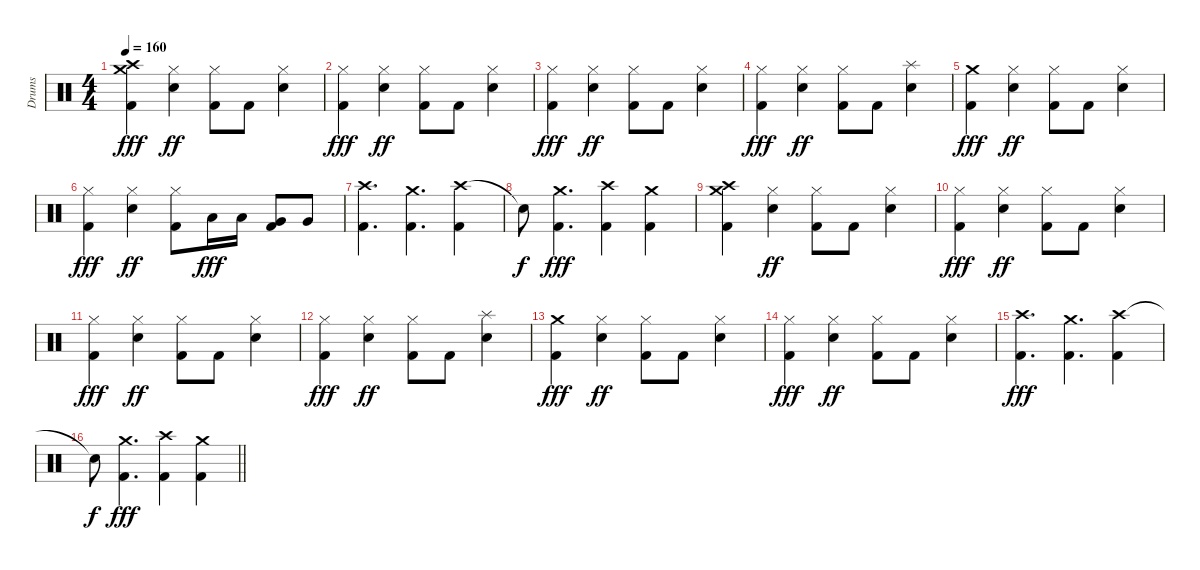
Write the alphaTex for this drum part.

\track ("Drums" "Drums") {instrument percussion}
\staff {score}
\articulation defaults
\ts (4 4)
\section ("" "")
\tempo 160
\clef neutral
\ks c
("Crash medium (hit)" "Crash high (hit)" "Kick (hit) 2").4{dy fff} ("Hi-Hat (closed)" "Electric Snare (hit)").4{dy ff} ("Hi-Hat (closed)" "Kick (hit) 2").8 "Kick (hit) 2".8 ("Hi-Hat (closed)" "Electric Snare (hit)").4 |
("Hi-Hat (closed)" "Kick (hit) 2").4{dy fff} ("Hi-Hat (closed)" "Electric Snare (hit)").4{dy ff} ("Hi-Hat (closed)" "Kick (hit) 2").8 "Kick (hit) 2".8 ("Hi-Hat (closed)" "Electric Snare (hit)").4 |
("Hi-Hat (closed)" "Kick (hit) 2").4{dy fff} ("Hi-Hat (closed)" "Electric Snare (hit)").4{dy ff} ("Hi-Hat (closed)" "Kick (hit) 2").8 "Kick (hit) 2".8 ("Hi-Hat (closed)" "Electric Snare (hit)").4 |
("Hi-Hat (closed)" "Kick (hit) 2").4{dy fff} ("Hi-Hat (closed)" "Electric Snare (hit)").4{dy ff} ("Hi-Hat (closed)" "Kick (hit) 2").8 "Kick (hit) 2".8 ("Splash (hit)" "Electric Snare (hit)").4 |
("Crash medium (hit)" "Kick (hit) 2").4{dy fff} ("Hi-Hat (closed)" "Electric Snare (hit)").4{dy ff} ("Hi-Hat (closed)" "Kick (hit) 2").8 "Kick (hit) 2".8 ("Hi-Hat (closed)" "Electric Snare (hit)").4 |
("Hi-Hat (closed)" "Kick (hit) 2").4{dy fff} ("Hi-Hat (closed)" "Electric Snare (hit)").4{dy ff} ("Hi-Hat (closed)" "Kick (hit) 2").8 "Low Tom (hit)".16{dy fff} "Low Tom (hit)".16 ("Very Low Tom (hit)" "Kick (hit) 2").8 "Very Low Tom (hit)".8 |
("Crash high (hit)" "Kick (hit) 2").4{d} ("Crash medium (hit)" "Kick (hit) 2").4{d} ("Crash high (hit)" "Kick (hit) 2").4 |
"Snare (hit)"{t}.8{dy f} ("Crash medium (hit)" "Kick (hit) 2").4{d dy fff} ("Crash high (hit)" "Kick (hit) 2").4 ("Crash medium (hit)" "Kick (hit) 2").4 |
("Crash high (hit)" "Crash medium (hit)" "Kick (hit) 2").4 ("Hi-Hat (closed)" "Electric Snare (hit)").4{dy ff} ("Hi-Hat (closed)" "Kick (hit) 2").8 "Kick (hit) 2".8 ("Hi-Hat (closed)" "Electric Snare (hit)").4 |
("Hi-Hat (closed)" "Kick (hit) 2").4{dy fff} ("Hi-Hat (closed)" "Electric Snare (hit)").4{dy ff} ("Hi-Hat (closed)" "Kick (hit) 2").8 "Kick (hit) 2".8 ("Hi-Hat (closed)" "Electric Snare (hit)").4 |
("Hi-Hat (closed)" "Kick (hit) 2").4{dy fff} ("Hi-Hat (closed)" "Electric Snare (hit)").4{dy ff} ("Hi-Hat (closed)" "Kick (hit) 2").8 "Kick (hit) 2".8 ("Hi-Hat (closed)" "Electric Snare (hit)").4 |
("Hi-Hat (closed)" "Kick (hit) 2").4{dy fff} ("Hi-Hat (closed)" "Electric Snare (hit)").4{dy ff} ("Hi-Hat (closed)" "Kick (hit) 2").8 "Kick (hit) 2".8 ("Splash (hit)" "Electric Snare (hit)").4 |
("Crash medium (hit)" "Kick (hit) 2").4{dy fff} ("Hi-Hat (closed)" "Electric Snare (hit)").4{dy ff} ("Hi-Hat (closed)" "Kick (hit) 2").8 "Kick (hit) 2".8 ("Hi-Hat (closed)" "Electric Snare (hit)").4 |
("Hi-Hat (closed)" "Kick (hit) 2").4{dy fff} ("Hi-Hat (closed)" "Electric Snare (hit)").4{dy ff} ("Hi-Hat (closed)" "Kick (hit) 2").8 "Kick (hit) 2".8 ("Hi-Hat (closed)" "Electric Snare (hit)").4 |
("Crash high (hit)" "Kick (hit) 2").4{d dy fff} ("Crash medium (hit)" "Kick (hit) 2").4{d} ("Crash high (hit)" "Kick (hit) 2").4 |
\barLineRight lightlight "Snare (hit)"{t}.8{dy f}
("Crash medium (hit)" "Kick (hit) 2").4{d dy fff} ("Crash high (hit)" "Kick (hit) 2").4 ("Crash medium (hit)" "Kick (hit) 2").4
